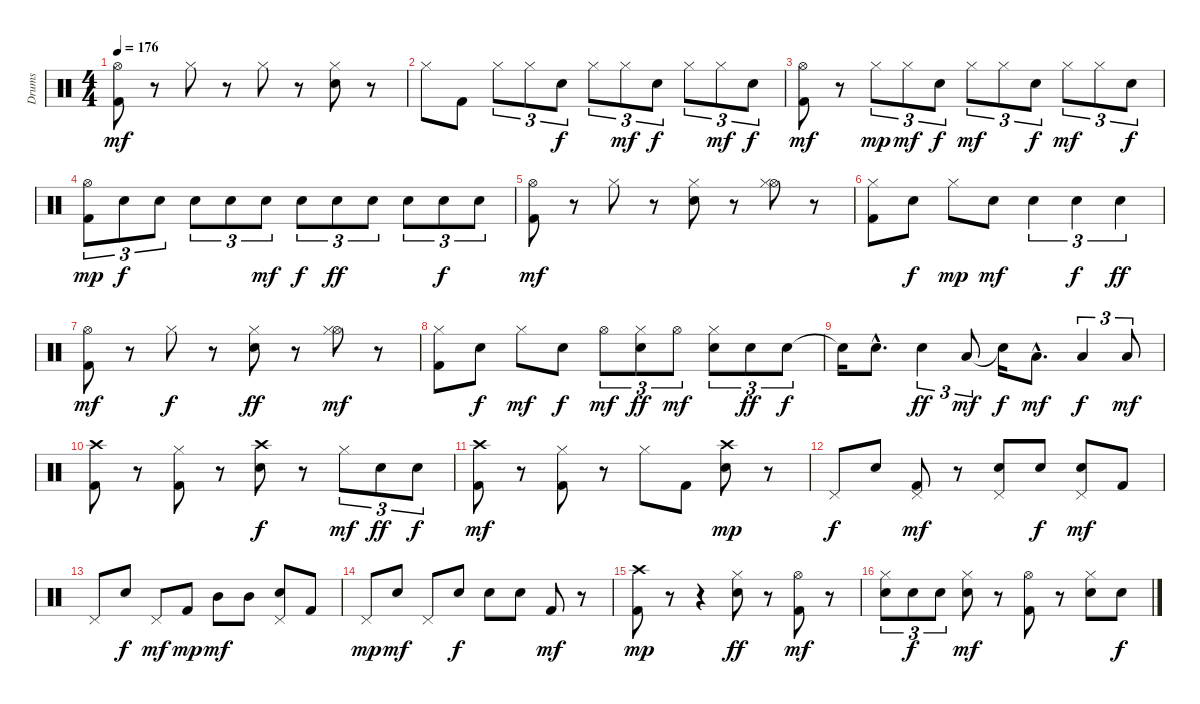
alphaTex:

\track ("Drums" "Drums") {instrument percussion}
\staff {score}
\articulation defaults
\ts (4 4)
\tempo 176
\clef neutral
\ks c
("Hi-Hat (open)" "Kick (hit) 2").8{dy mf} r.8 "Hi-Hat (closed)".8 r.8 "Hi-Hat (closed)".8 r.8 ("Hi-Hat (closed)" "Snare (hit) 2").8 r.8 |
"Hi-Hat (closed)".8 "Kick (hit) 2".8 "Hi-Hat (closed)".8{tu (3 2)} "Hi-Hat (closed)".8{tu (3 2)} "Snare (hit) 2".8{tu (3 2) dy f} "Hi-Hat (closed)".8{tu (3 2)} "Hi-Hat (closed)".8{tu (3 2) dy mf} "Snare (hit) 2".8{tu (3 2) dy f} "Hi-Hat (closed)".8{tu (3 2)} "Hi-Hat (closed)".8{tu (3 2) dy mf} "Snare (hit) 2".8{tu (3 2) dy f} |
("Hi-Hat (open)" "Kick (hit) 2").8{dy mf} r.8 "Hi-Hat (closed)".8{tu (3 2) dy mp} "Hi-Hat (closed)".8{tu (3 2) dy mf} "Snare (hit) 2".8{tu (3 2) dy f} "Hi-Hat (closed)".8{tu (3 2) dy mf} "Hi-Hat (closed)".8{tu (3 2)} "Snare (hit) 2".8{tu (3 2) dy f} "Hi-Hat (closed)".8{tu (3 2) dy mf} "Hi-Hat (closed)".8{tu (3 2)} "Snare (hit) 2".8{tu (3 2) dy f} |
("Hi-Hat (open)" "Kick (hit) 2").8{tu (3 2) dy mp} "Snare (hit) 2".8{tu (3 2) dy f} "Snare (hit) 2".8{tu (3 2)} "Snare (hit) 2".8{tu (3 2)} "Snare (hit) 2".8{tu (3 2)} "Snare (hit) 2".8{tu (3 2) dy mf} "Snare (hit) 2".8{tu (3 2) dy f} "Snare (hit) 2".8{tu (3 2) dy ff} "Snare (hit) 2".8{tu (3 2)} "Snare (hit) 2".8{tu (3 2)} "Snare (hit) 2".8{tu (3 2) dy f} "Snare (hit) 2".8{tu (3 2)} |
("Hi-Hat (open)" "Kick (hit) 2").8{dy mf} r.8 "Hi-Hat (closed)".8 r.8 ("Hi-Hat (closed)" "Snare (hit) 2").8 r.8 ("Hi-Hat (open)" "Hi-Hat (closed)").8 r.8 |
("Hi-Hat (closed)" "Kick (hit) 2").8 "Snare (hit) 2".8{dy f} "Hi-Hat (closed)".8{dy mp} "Snare (hit) 2".8{dy mf} "Snare (hit) 2".4{tu (3 2)} "Snare (hit) 2".4{tu (3 2) dy f} "Snare (hit) 2".4{tu (3 2) dy ff} |
("Hi-Hat (open)" "Kick (hit) 2").8{dy mf} r.8 "Hi-Hat (closed)".8{dy f} r.8 ("Hi-Hat (closed)" "Snare (hit) 2").8{dy ff} r.8 ("Hi-Hat (open)" "Hi-Hat (closed)").8{dy mf} r.8 |
("Hi-Hat (closed)" "Kick (hit) 2").8 "Snare (hit) 2".8{dy f} "Hi-Hat (closed)".8{dy mf} "Snare (hit) 2".8{dy f} "Hi-Hat (open)".8{tu (3 2) dy mf} ("Hi-Hat (closed)" "Snare (hit) 2").8{tu (3 2) dy ff} "Hi-Hat (open)".8{tu (3 2) dy mf} ("Hi-Hat (closed)" "Snare (hit) 2").8{tu (3 2)} "Snare (hit) 2".8{tu (3 2) dy ff} "Snare (hit) 2".8{tu (3 2) dy f} |
"Snare (hit)"{t}.16 "Snare (hit) 2"{hac}.8{d} "Snare (hit) 2".4{tu (3 2) dy ff} "Low Floor Tom (hit)".8{tu (3 2) dy mf} "Snare (hit)"{t}.16{dy f} "Low Floor Tom (hit)"{hac}.8{d dy mf} "Low Tom (hit)".4{tu (3 2) dy f} "Low Tom (hit)".8{tu (3 2) dy mf} |
("Crash high (hit)" "Kick (hit) 2").8 r.8 ("Hi-Hat (closed)" "Kick (hit) 2").8 r.8 ("Crash high (hit)" "Snare (hit) 2").8{dy f} r.8 "Hi-Hat (closed)".8{tu (3 2) dy mf} "Snare (hit) 2".8{tu (3 2) dy ff} "Snare (hit) 2".8{tu (3 2) dy f} |
("Crash high (hit)" "Kick (hit) 2").8{dy mf} r.8 ("Hi-Hat (closed)" "Kick (hit) 2").8 r.8 "Hi-Hat (closed)".8 "Kick (hit) 2".8 ("Crash high (hit)" "Snare (hit) 2").8{dy mp} r.8 |
"Pedal Hi-Hat (hit)".8{dy f} "Snare (hit) 2".8 ("Pedal Hi-Hat (hit)" "Kick (hit) 2").8{dy mf} r.8 ("Pedal Hi-Hat (hit)" "Snare (hit) 2").8 "Snare (hit) 2".8{dy f} ("Pedal Hi-Hat (hit)" "Snare (hit) 2").8{dy mf} "Kick (hit) 2".8 |
"Pedal Hi-Hat (hit)".8 "Snare (hit) 2".8{dy f} "Pedal Hi-Hat (hit)".8{dy mf} "Kick (hit) 2".8{dy mp} "Mid Tom (hit)".8{dy mf} "Mid Tom (hit)".8 ("Pedal Hi-Hat (hit)" "Snare (hit) 2").8 "Kick (hit) 2".8 |
"Pedal Hi-Hat (hit)".8{dy mp} "Snare (hit) 2".8{dy mf} "Pedal Hi-Hat (hit)".8 "Snare (hit) 2".8{dy f} "Snare (hit) 2".8 "Snare (hit) 2".8 "Kick (hit) 2".8{dy mf} r.8 |
("Crash high (hit)" "Kick (hit) 2").8{dy mp} r.8 r.4 ("Hi-Hat (closed)" "Snare (hit) 2").8{dy ff} r.8 ("Hi-Hat (open)" "Kick (hit) 2").8{dy mf} r.8 |
("Hi-Hat (closed)" "Snare (hit) 2").8{tu (3 2)} "Snare (hit) 2".8{tu (3 2) dy f} "Snare (hit) 2".8{tu (3 2)} ("Hi-Hat (closed)" "Snare (hit) 2").8{dy mf} r.8 ("Hi-Hat (open)" "Kick (hit) 2").8 r.8 ("Hi-Hat (closed)" "Snare (hit) 2").8 "Snare (hit) 2".8{dy f}
